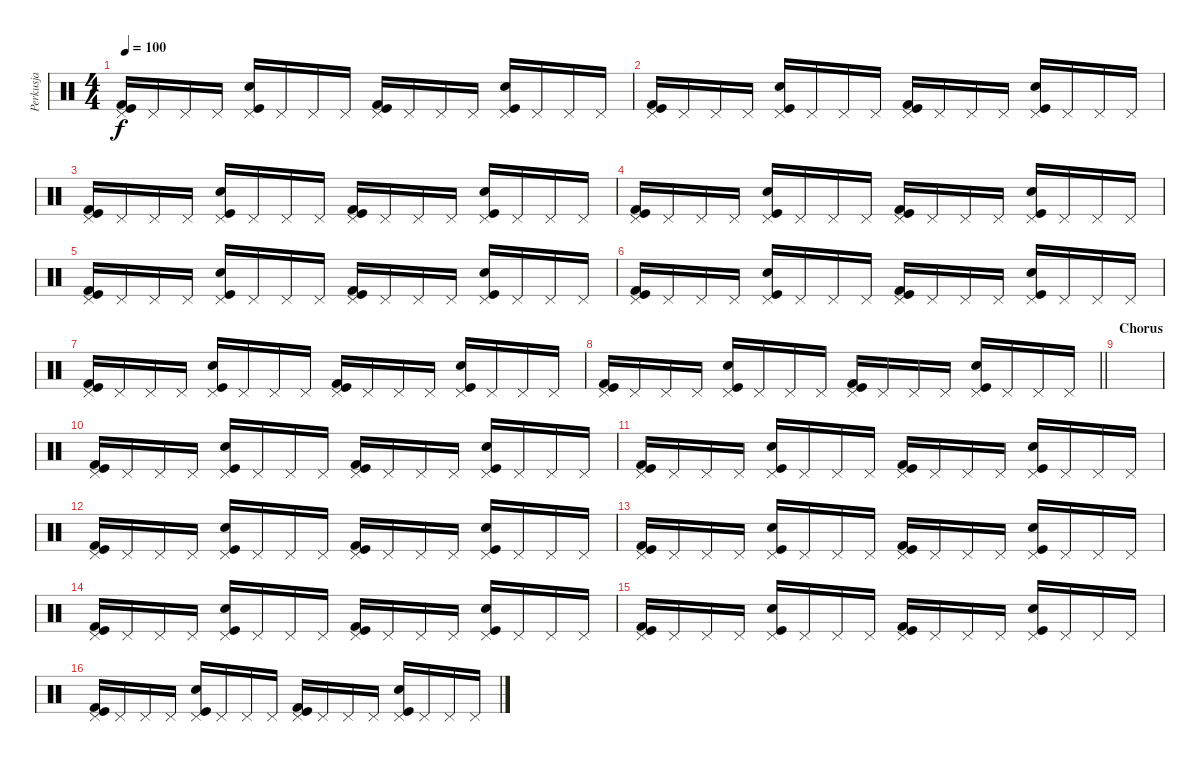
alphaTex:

\track ("Perkusja" "Perkusja") {instrument percussion}
\staff {score}
\articulation defaults
\ts (4 4)
\tempo 100
\clef neutral
\ks c
("Pedal Hi-Hat (hit)" "Kick (hit)" "Kick (hit) 2").16{dy f} "Pedal Hi-Hat (hit)".16 "Pedal Hi-Hat (hit)".16 "Pedal Hi-Hat (hit)".16 ("Pedal Hi-Hat (hit)" "Hand Clap (hit)" "Kick (hit)").16 "Pedal Hi-Hat (hit)".16 "Pedal Hi-Hat (hit)".16 "Pedal Hi-Hat (hit)".16 ("Pedal Hi-Hat (hit)" "Kick (hit)" "Kick (hit) 2").16 "Pedal Hi-Hat (hit)".16 "Pedal Hi-Hat (hit)".16 "Pedal Hi-Hat (hit)".16 ("Pedal Hi-Hat (hit)" "Hand Clap (hit)" "Kick (hit)").16 "Pedal Hi-Hat (hit)".16 "Pedal Hi-Hat (hit)".16 "Pedal Hi-Hat (hit)".16 |
("Pedal Hi-Hat (hit)" "Kick (hit)" "Kick (hit) 2").16 "Pedal Hi-Hat (hit)".16 "Pedal Hi-Hat (hit)".16 "Pedal Hi-Hat (hit)".16 ("Pedal Hi-Hat (hit)" "Hand Clap (hit)" "Kick (hit)").16 "Pedal Hi-Hat (hit)".16 "Pedal Hi-Hat (hit)".16 "Pedal Hi-Hat (hit)".16 ("Pedal Hi-Hat (hit)" "Kick (hit)" "Kick (hit) 2").16 "Pedal Hi-Hat (hit)".16 "Pedal Hi-Hat (hit)".16 "Pedal Hi-Hat (hit)".16 ("Pedal Hi-Hat (hit)" "Hand Clap (hit)" "Kick (hit)").16 "Pedal Hi-Hat (hit)".16 "Pedal Hi-Hat (hit)".16 "Pedal Hi-Hat (hit)".16 |
("Pedal Hi-Hat (hit)" "Kick (hit)" "Kick (hit) 2").16 "Pedal Hi-Hat (hit)".16 "Pedal Hi-Hat (hit)".16 "Pedal Hi-Hat (hit)".16 ("Pedal Hi-Hat (hit)" "Hand Clap (hit)" "Kick (hit)").16 "Pedal Hi-Hat (hit)".16 "Pedal Hi-Hat (hit)".16 "Pedal Hi-Hat (hit)".16 ("Pedal Hi-Hat (hit)" "Kick (hit)" "Kick (hit) 2").16 "Pedal Hi-Hat (hit)".16 "Pedal Hi-Hat (hit)".16 "Pedal Hi-Hat (hit)".16 ("Pedal Hi-Hat (hit)" "Hand Clap (hit)" "Kick (hit)").16 "Pedal Hi-Hat (hit)".16 "Pedal Hi-Hat (hit)".16 "Pedal Hi-Hat (hit)".16 |
("Pedal Hi-Hat (hit)" "Kick (hit)" "Kick (hit) 2").16 "Pedal Hi-Hat (hit)".16 "Pedal Hi-Hat (hit)".16 "Pedal Hi-Hat (hit)".16 ("Pedal Hi-Hat (hit)" "Hand Clap (hit)" "Kick (hit)").16 "Pedal Hi-Hat (hit)".16 "Pedal Hi-Hat (hit)".16 "Pedal Hi-Hat (hit)".16 ("Pedal Hi-Hat (hit)" "Kick (hit)" "Kick (hit) 2").16 "Pedal Hi-Hat (hit)".16 "Pedal Hi-Hat (hit)".16 "Pedal Hi-Hat (hit)".16 ("Pedal Hi-Hat (hit)" "Hand Clap (hit)" "Kick (hit)").16 "Pedal Hi-Hat (hit)".16 "Pedal Hi-Hat (hit)".16 "Pedal Hi-Hat (hit)".16 |
("Pedal Hi-Hat (hit)" "Kick (hit)" "Kick (hit) 2").16 "Pedal Hi-Hat (hit)".16 "Pedal Hi-Hat (hit)".16 "Pedal Hi-Hat (hit)".16 ("Pedal Hi-Hat (hit)" "Hand Clap (hit)" "Kick (hit)").16 "Pedal Hi-Hat (hit)".16 "Pedal Hi-Hat (hit)".16 "Pedal Hi-Hat (hit)".16 ("Pedal Hi-Hat (hit)" "Kick (hit)" "Kick (hit) 2").16 "Pedal Hi-Hat (hit)".16 "Pedal Hi-Hat (hit)".16 "Pedal Hi-Hat (hit)".16 ("Pedal Hi-Hat (hit)" "Hand Clap (hit)" "Kick (hit)").16 "Pedal Hi-Hat (hit)".16 "Pedal Hi-Hat (hit)".16 "Pedal Hi-Hat (hit)".16 |
("Pedal Hi-Hat (hit)" "Kick (hit)" "Kick (hit) 2").16 "Pedal Hi-Hat (hit)".16 "Pedal Hi-Hat (hit)".16 "Pedal Hi-Hat (hit)".16 ("Pedal Hi-Hat (hit)" "Hand Clap (hit)" "Kick (hit)").16 "Pedal Hi-Hat (hit)".16 "Pedal Hi-Hat (hit)".16 "Pedal Hi-Hat (hit)".16 ("Pedal Hi-Hat (hit)" "Kick (hit)" "Kick (hit) 2").16 "Pedal Hi-Hat (hit)".16 "Pedal Hi-Hat (hit)".16 "Pedal Hi-Hat (hit)".16 ("Pedal Hi-Hat (hit)" "Hand Clap (hit)" "Kick (hit)").16 "Pedal Hi-Hat (hit)".16 "Pedal Hi-Hat (hit)".16 "Pedal Hi-Hat (hit)".16 |
("Pedal Hi-Hat (hit)" "Kick (hit)" "Kick (hit) 2").16 "Pedal Hi-Hat (hit)".16 "Pedal Hi-Hat (hit)".16 "Pedal Hi-Hat (hit)".16 ("Pedal Hi-Hat (hit)" "Hand Clap (hit)" "Kick (hit)").16 "Pedal Hi-Hat (hit)".16 "Pedal Hi-Hat (hit)".16 "Pedal Hi-Hat (hit)".16 ("Pedal Hi-Hat (hit)" "Kick (hit)" "Kick (hit) 2").16 "Pedal Hi-Hat (hit)".16 "Pedal Hi-Hat (hit)".16 "Pedal Hi-Hat (hit)".16 ("Pedal Hi-Hat (hit)" "Hand Clap (hit)" "Kick (hit)").16 "Pedal Hi-Hat (hit)".16 "Pedal Hi-Hat (hit)".16 "Pedal Hi-Hat (hit)".16 |
\barLineRight lightlight
("Pedal Hi-Hat (hit)" "Kick (hit)" "Kick (hit) 2").16 "Pedal Hi-Hat (hit)".16 "Pedal Hi-Hat (hit)".16 "Pedal Hi-Hat (hit)".16 ("Pedal Hi-Hat (hit)" "Hand Clap (hit)" "Kick (hit)").16 "Pedal Hi-Hat (hit)".16 "Pedal Hi-Hat (hit)".16 "Pedal Hi-Hat (hit)".16 ("Pedal Hi-Hat (hit)" "Kick (hit)" "Kick (hit) 2").16 "Pedal Hi-Hat (hit)".16 "Pedal Hi-Hat (hit)".16 "Pedal Hi-Hat (hit)".16 ("Pedal Hi-Hat (hit)" "Hand Clap (hit)" "Kick (hit)").16 "Pedal Hi-Hat (hit)".16 "Pedal Hi-Hat (hit)".16 "Pedal Hi-Hat (hit)".16 |
\section ("" "Chorus")
|
("Pedal Hi-Hat (hit)" "Kick (hit)" "Kick (hit) 2").16 "Pedal Hi-Hat (hit)".16 "Pedal Hi-Hat (hit)".16 "Pedal Hi-Hat (hit)".16 ("Pedal Hi-Hat (hit)" "Hand Clap (hit)" "Kick (hit)").16 "Pedal Hi-Hat (hit)".16 "Pedal Hi-Hat (hit)".16 "Pedal Hi-Hat (hit)".16 ("Pedal Hi-Hat (hit)" "Kick (hit)" "Kick (hit) 2").16 "Pedal Hi-Hat (hit)".16 "Pedal Hi-Hat (hit)".16 "Pedal Hi-Hat (hit)".16 ("Pedal Hi-Hat (hit)" "Hand Clap (hit)" "Kick (hit)").16 "Pedal Hi-Hat (hit)".16 "Pedal Hi-Hat (hit)".16 "Pedal Hi-Hat (hit)".16 |
("Pedal Hi-Hat (hit)" "Kick (hit)" "Kick (hit) 2").16 "Pedal Hi-Hat (hit)".16 "Pedal Hi-Hat (hit)".16 "Pedal Hi-Hat (hit)".16 ("Pedal Hi-Hat (hit)" "Hand Clap (hit)" "Kick (hit)").16 "Pedal Hi-Hat (hit)".16 "Pedal Hi-Hat (hit)".16 "Pedal Hi-Hat (hit)".16 ("Pedal Hi-Hat (hit)" "Kick (hit)" "Kick (hit) 2").16 "Pedal Hi-Hat (hit)".16 "Pedal Hi-Hat (hit)".16 "Pedal Hi-Hat (hit)".16 ("Pedal Hi-Hat (hit)" "Hand Clap (hit)" "Kick (hit)").16 "Pedal Hi-Hat (hit)".16 "Pedal Hi-Hat (hit)".16 "Pedal Hi-Hat (hit)".16 |
("Pedal Hi-Hat (hit)" "Kick (hit)" "Kick (hit) 2").16 "Pedal Hi-Hat (hit)".16 "Pedal Hi-Hat (hit)".16 "Pedal Hi-Hat (hit)".16 ("Pedal Hi-Hat (hit)" "Hand Clap (hit)" "Kick (hit)").16 "Pedal Hi-Hat (hit)".16 "Pedal Hi-Hat (hit)".16 "Pedal Hi-Hat (hit)".16 ("Pedal Hi-Hat (hit)" "Kick (hit)" "Kick (hit) 2").16 "Pedal Hi-Hat (hit)".16 "Pedal Hi-Hat (hit)".16 "Pedal Hi-Hat (hit)".16 ("Pedal Hi-Hat (hit)" "Hand Clap (hit)" "Kick (hit)").16 "Pedal Hi-Hat (hit)".16 "Pedal Hi-Hat (hit)".16 "Pedal Hi-Hat (hit)".16 |
("Pedal Hi-Hat (hit)" "Kick (hit)" "Kick (hit) 2").16 "Pedal Hi-Hat (hit)".16 "Pedal Hi-Hat (hit)".16 "Pedal Hi-Hat (hit)".16 ("Pedal Hi-Hat (hit)" "Hand Clap (hit)" "Kick (hit)").16 "Pedal Hi-Hat (hit)".16 "Pedal Hi-Hat (hit)".16 "Pedal Hi-Hat (hit)".16 ("Pedal Hi-Hat (hit)" "Kick (hit)" "Kick (hit) 2").16 "Pedal Hi-Hat (hit)".16 "Pedal Hi-Hat (hit)".16 "Pedal Hi-Hat (hit)".16 ("Pedal Hi-Hat (hit)" "Hand Clap (hit)" "Kick (hit)").16 "Pedal Hi-Hat (hit)".16 "Pedal Hi-Hat (hit)".16 "Pedal Hi-Hat (hit)".16 |
("Pedal Hi-Hat (hit)" "Kick (hit)" "Kick (hit) 2").16 "Pedal Hi-Hat (hit)".16 "Pedal Hi-Hat (hit)".16 "Pedal Hi-Hat (hit)".16 ("Pedal Hi-Hat (hit)" "Hand Clap (hit)" "Kick (hit)").16 "Pedal Hi-Hat (hit)".16 "Pedal Hi-Hat (hit)".16 "Pedal Hi-Hat (hit)".16 ("Pedal Hi-Hat (hit)" "Kick (hit)" "Kick (hit) 2").16 "Pedal Hi-Hat (hit)".16 "Pedal Hi-Hat (hit)".16 "Pedal Hi-Hat (hit)".16 ("Pedal Hi-Hat (hit)" "Hand Clap (hit)" "Kick (hit)").16 "Pedal Hi-Hat (hit)".16 "Pedal Hi-Hat (hit)".16 "Pedal Hi-Hat (hit)".16 |
("Pedal Hi-Hat (hit)" "Kick (hit)" "Kick (hit) 2").16 "Pedal Hi-Hat (hit)".16 "Pedal Hi-Hat (hit)".16 "Pedal Hi-Hat (hit)".16 ("Pedal Hi-Hat (hit)" "Hand Clap (hit)" "Kick (hit)").16 "Pedal Hi-Hat (hit)".16 "Pedal Hi-Hat (hit)".16 "Pedal Hi-Hat (hit)".16 ("Pedal Hi-Hat (hit)" "Kick (hit)" "Kick (hit) 2").16 "Pedal Hi-Hat (hit)".16 "Pedal Hi-Hat (hit)".16 "Pedal Hi-Hat (hit)".16 ("Pedal Hi-Hat (hit)" "Hand Clap (hit)" "Kick (hit)").16 "Pedal Hi-Hat (hit)".16 "Pedal Hi-Hat (hit)".16 "Pedal Hi-Hat (hit)".16 |
("Pedal Hi-Hat (hit)" "Kick (hit)" "Kick (hit) 2").16 "Pedal Hi-Hat (hit)".16 "Pedal Hi-Hat (hit)".16 "Pedal Hi-Hat (hit)".16 ("Pedal Hi-Hat (hit)" "Hand Clap (hit)" "Kick (hit)").16 "Pedal Hi-Hat (hit)".16 "Pedal Hi-Hat (hit)".16 "Pedal Hi-Hat (hit)".16 ("Pedal Hi-Hat (hit)" "Kick (hit)" "Kick (hit) 2").16 "Pedal Hi-Hat (hit)".16 "Pedal Hi-Hat (hit)".16 "Pedal Hi-Hat (hit)".16 ("Pedal Hi-Hat (hit)" "Hand Clap (hit)" "Kick (hit)").16 "Pedal Hi-Hat (hit)".16 "Pedal Hi-Hat (hit)".16 "Pedal Hi-Hat (hit)".16
